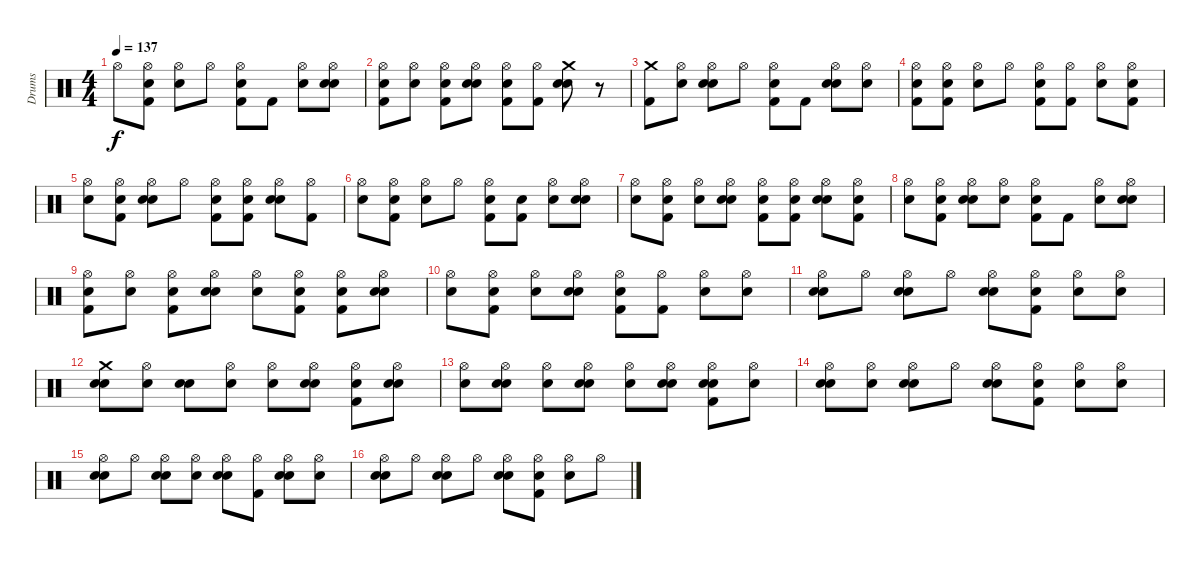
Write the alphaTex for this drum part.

\track ("Drums" "Drums") {instrument percussion}
\staff {score}
\articulation defaults
\ts (4 4)
\tempo 137
\clef neutral
\ks c "Hi-Hat (open)".8{dy f}
("Snare (hit)" "Hi-Hat (open)" "Kick (hit) 2").8 ("Hi-Hat (open)" "Electric Snare (hit)").8 "Hi-Hat (open)".8 ("Snare (hit)" "Hi-Hat (open)" "Kick (hit) 2").8 "Kick (hit) 2".8 ("Snare (hit)" "Hi-Hat (open)").8 ("Snare (hit)" "Electric Snare (hit)" "Hi-Hat (open)").8 |
("Snare (hit)" "Kick (hit) 2" "Hi-Hat (open)").8 ("Snare (hit)" "Hi-Hat (open)").8 ("Snare (hit)" "Kick (hit) 2" "Hi-Hat (open)").8 ("Snare (hit)" "Hi-Hat (open)" "Electric Snare (hit)").8 ("Snare (hit)" "Hi-Hat (open)" "Kick (hit) 2").8 ("Kick (hit) 2" "Hi-Hat (open)").8 ("Snare (hit)" "Electric Snare (hit)" "Crash medium (hit)").8 r.8 |
("Kick (hit) 2" "Crash medium (hit)").8 ("Snare (hit)" "Hi-Hat (open)").8 ("Snare (hit)" "Hi-Hat (open)" "Electric Snare (hit)").8 "Hi-Hat (open)".8 ("Snare (hit)" "Kick (hit) 2" "Hi-Hat (open)").8 "Kick (hit) 2".8 ("Snare (hit)" "Hi-Hat (open)" "Electric Snare (hit)").8 ("Snare (hit)" "Hi-Hat (open)").8 |
("Snare (hit)" "Kick (hit) 2" "Hi-Hat (open)").8 ("Snare (hit)" "Hi-Hat (open)" "Kick (hit) 2").8 ("Hi-Hat (open)" "Electric Snare (hit)").8 "Hi-Hat (open)".8 ("Snare (hit)" "Hi-Hat (open)" "Kick (hit) 2").8 ("Hi-Hat (open)" "Kick (hit) 2").8 ("Electric Snare (hit)" "Hi-Hat (open)").8 ("Snare (hit)" "Kick (hit) 2" "Hi-Hat (open)").8 |
("Snare (hit)" "Hi-Hat (open)").8 ("Snare (hit)" "Kick (hit) 2" "Hi-Hat (open)").8 ("Snare (hit)" "Hi-Hat (open)" "Electric Snare (hit)").8 "Hi-Hat (open)".8 ("Snare (hit)" "Kick (hit) 2" "Hi-Hat (open)").8 ("Snare (hit)" "Hi-Hat (open)" "Kick (hit) 2").8 ("Snare (hit)" "Hi-Hat (open)" "Electric Snare (hit)").8 ("Kick (hit) 2" "Hi-Hat (open)").8 |
("Snare (hit)" "Hi-Hat (open)").8 ("Snare (hit)" "Hi-Hat (open)" "Kick (hit) 2").8 ("Hi-Hat (open)" "Electric Snare (hit)").8 "Hi-Hat (open)".8 ("Snare (hit)" "Kick (hit) 2" "Hi-Hat (open)").8 ("Snare (hit)" "Kick (hit) 2").8 ("Snare (hit)" "Hi-Hat (open)").8 ("Snare (hit)" "Electric Snare (hit)" "Hi-Hat (open)").8 |
("Snare (hit)" "Hi-Hat (open)").8 ("Snare (hit)" "Kick (hit) 2" "Hi-Hat (open)").8 ("Snare (hit)" "Hi-Hat (open)").8 ("Snare (hit)" "Hi-Hat (open)" "Electric Snare (hit)").8 ("Snare (hit)" "Kick (hit) 2" "Hi-Hat (open)").8 ("Snare (hit)" "Hi-Hat (open)" "Kick (hit) 2").8 ("Snare (hit)" "Electric Snare (hit)" "Hi-Hat (open)").8 ("Snare (hit)" "Kick (hit) 2" "Hi-Hat (open)").8 |
("Snare (hit)" "Hi-Hat (open)").8 ("Snare (hit)" "Kick (hit) 2" "Hi-Hat (open)").8 ("Snare (hit)" "Electric Snare (hit)" "Hi-Hat (open)").8 ("Snare (hit)" "Hi-Hat (open)").8 ("Snare (hit)" "Hi-Hat (open)" "Kick (hit) 2").8 "Kick (hit) 2".8 ("Snare (hit)" "Hi-Hat (open)").8 ("Snare (hit)" "Electric Snare (hit)" "Hi-Hat (open)").8 |
("Snare (hit)" "Kick (hit) 2" "Hi-Hat (open)").8 ("Snare (hit)" "Hi-Hat (open)").8 ("Snare (hit)" "Kick (hit) 2" "Hi-Hat (open)").8 ("Snare (hit)" "Electric Snare (hit)" "Hi-Hat (open)").8 ("Snare (hit)" "Hi-Hat (open)").8 ("Snare (hit)" "Kick (hit) 2" "Hi-Hat (open)").8 ("Snare (hit)" "Kick (hit) 2" "Hi-Hat (open)").8 ("Snare (hit)" "Electric Snare (hit)" "Hi-Hat (open)").8 |
("Snare (hit)" "Hi-Hat (open)").8 ("Snare (hit)" "Kick (hit) 2" "Hi-Hat (open)").8 ("Snare (hit)" "Hi-Hat (open)").8 ("Snare (hit)" "Hi-Hat (open)" "Electric Snare (hit)").8 ("Snare (hit)" "Hi-Hat (open)" "Kick (hit) 2").8 ("Hi-Hat (open)" "Kick (hit) 2").8 ("Electric Snare (hit)" "Hi-Hat (open)").8 ("Snare (hit)" "Hi-Hat (open)").8 |
("Snare (hit)" "Hi-Hat (open)" "Electric Snare (hit)").8 "Hi-Hat (open)".8 ("Snare (hit)" "Hi-Hat (open)" "Electric Snare (hit)").8 "Hi-Hat (open)".8 ("Snare (hit)" "Hi-Hat (open)" "Electric Snare (hit)").8 ("Snare (hit)" "Hi-Hat (open)" "Kick (hit) 2").8 ("Electric Snare (hit)" "Hi-Hat (open)").8 ("Snare (hit)" "Hi-Hat (open)").8 |
("Snare (hit)" "Electric Snare (hit)" "Crash medium (hit)").8 ("Snare (hit)" "Hi-Hat (open)").8 ("Snare (hit)" "Electric Snare (hit)").8 ("Snare (hit)" "Hi-Hat (open)").8 ("Snare (hit)" "Hi-Hat (open)").8 ("Snare (hit)" "Electric Snare (hit)" "Hi-Hat (open)").8 ("Snare (hit)" "Hi-Hat (open)" "Kick (hit) 2").8 ("Snare (hit)" "Electric Snare (hit)" "Hi-Hat (open)").8 |
("Snare (hit)" "Hi-Hat (open)").8 ("Snare (hit)" "Electric Snare (hit)" "Hi-Hat (open)").8 ("Snare (hit)" "Hi-Hat (open)").8 ("Snare (hit)" "Electric Snare (hit)" "Hi-Hat (open)").8 ("Snare (hit)" "Hi-Hat (open)").8 ("Snare (hit)" "Electric Snare (hit)" "Hi-Hat (open)").8 ("Snare (hit)" "Hi-Hat (open)" "Kick (hit) 2" "Electric Snare (hit)").8 ("Snare (hit)" "Hi-Hat (open)").8 |
("Snare (hit)" "Electric Snare (hit)" "Hi-Hat (open)").8 ("Snare (hit)" "Hi-Hat (open)").8 ("Snare (hit)" "Hi-Hat (open)" "Electric Snare (hit)").8 "Hi-Hat (open)".8 ("Snare (hit)" "Electric Snare (hit)" "Hi-Hat (open)").8 ("Snare (hit)" "Hi-Hat (open)" "Kick (hit) 2").8 ("Electric Snare (hit)" "Hi-Hat (open)").8 ("Snare (hit)" "Hi-Hat (open)").8 |
("Snare (hit)" "Hi-Hat (open)" "Electric Snare (hit)").8 "Hi-Hat (open)".8 ("Snare (hit)" "Electric Snare (hit)" "Hi-Hat (open)").8 ("Snare (hit)" "Hi-Hat (open)").8 ("Snare (hit)" "Hi-Hat (open)" "Electric Snare (hit)").8 ("Kick (hit) 2" "Hi-Hat (open)").8 ("Snare (hit)" "Electric Snare (hit)" "Hi-Hat (open)").8 ("Snare (hit)" "Hi-Hat (open)").8 |
("Snare (hit)" "Hi-Hat (open)" "Electric Snare (hit)").8 "Hi-Hat (open)".8 ("Snare (hit)" "Hi-Hat (open)" "Electric Snare (hit)").8 "Hi-Hat (open)".8 ("Snare (hit)" "Electric Snare (hit)" "Hi-Hat (open)").8 ("Snare (hit)" "Hi-Hat (open)" "Kick (hit) 2").8 ("Hi-Hat (open)" "Electric Snare (hit)").8 "Hi-Hat (open)".8
